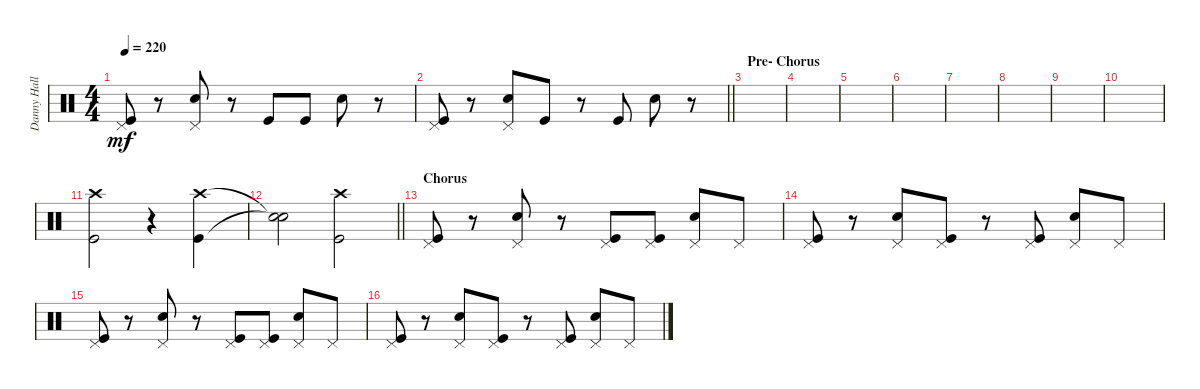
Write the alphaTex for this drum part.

\track ("Danny Hall" "Danny Hall") {instrument percussion}
\staff {score}
\articulation defaults
\ts (4 4)
\tempo 220
\clef neutral
\ks c
("Pedal Hi-Hat (hit)" "Kick (hit)").8{dy mf} r.8 ("Pedal Hi-Hat (hit)" "Snare (hit) 2").8 r.8 "Kick (hit)".8 "Kick (hit)".8 "Snare (hit) 2".8 r.8 |
\barLineRight lightlight
("Pedal Hi-Hat (hit)" "Kick (hit)").8 r.8 ("Pedal Hi-Hat (hit)" "Snare (hit) 2").8 "Kick (hit)".8 r.8 "Kick (hit)".8 "Snare (hit) 2".8 r.8 |
\section ("" "Pre- Chorus")
|
|
|
|
|
|
|
|
("Crash high (hit)" "Kick (hit)").2 r.4 ("Crash high (hit)" "Kick (hit)").4 |
\barLineRight lightlight
("Snare (hit)"{t} "Snare (hit)"{t}).2 ("Crash high (hit)" "Kick (hit)").2 |
\section ("" "Chorus")
("Pedal Hi-Hat (hit)" "Kick (hit)").8 r.8 ("Pedal Hi-Hat (hit)" "Snare (hit) 2").8 r.8 ("Pedal Hi-Hat (hit)" "Kick (hit)").8 ("Pedal Hi-Hat (hit)" "Kick (hit)").8 ("Pedal Hi-Hat (hit)" "Snare (hit) 2").8 "Pedal Hi-Hat (hit)".8 |
("Pedal Hi-Hat (hit)" "Kick (hit)").8 r.8 ("Pedal Hi-Hat (hit)" "Snare (hit) 2").8 ("Pedal Hi-Hat (hit)" "Kick (hit)").8 r.8 ("Pedal Hi-Hat (hit)" "Kick (hit)").8 ("Pedal Hi-Hat (hit)" "Snare (hit) 2").8 "Pedal Hi-Hat (hit)".8 |
("Pedal Hi-Hat (hit)" "Kick (hit)").8 r.8 ("Pedal Hi-Hat (hit)" "Snare (hit) 2").8 r.8 ("Pedal Hi-Hat (hit)" "Kick (hit)").8 ("Pedal Hi-Hat (hit)" "Kick (hit)").8 ("Pedal Hi-Hat (hit)" "Snare (hit) 2").8 "Pedal Hi-Hat (hit)".8 |
("Pedal Hi-Hat (hit)" "Kick (hit)").8 r.8 ("Pedal Hi-Hat (hit)" "Snare (hit) 2").8 ("Pedal Hi-Hat (hit)" "Kick (hit)").8 r.8 ("Pedal Hi-Hat (hit)" "Kick (hit)").8 ("Pedal Hi-Hat (hit)" "Snare (hit) 2").8 "Pedal Hi-Hat (hit)".8
